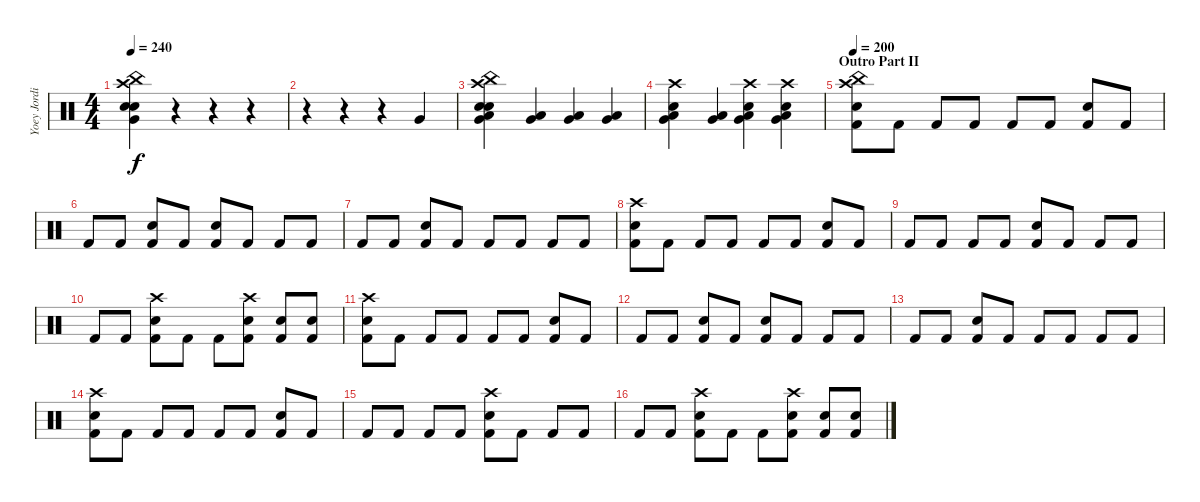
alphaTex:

\track ("Yoey Jordison" "Yoey Jordi") {instrument percussion}
\staff {score}
\articulation defaults
\ts (4 4)
\tempo 240
\clef neutral
\ks c
("China (hit)" "Crash high (hit)" "Electric Snare (hit)" "Snare (hit) 2" "Very Low Tom (hit)").4{dy f} r.4 r.4 r.4 |
r.4 r.4 r.4 "Very Low Tom (hit)".4 |
("Crash high (hit)" "China (hit)" "Electric Snare (hit)" "Very Low Tom (hit)" "Snare (hit) 2" "Low Floor Tom (hit)").4 ("Very Low Tom (hit)" "Low Floor Tom (hit)").4 ("Very Low Tom (hit)" "Low Floor Tom (hit)").4 ("Very Low Tom (hit)" "Low Floor Tom (hit)").4 |
("Crash high (hit)" "Electric Snare (hit)" "Very Low Tom (hit)" "Low Floor Tom (hit)").4 ("Very Low Tom (hit)" "Low Floor Tom (hit)").4 ("Crash high (hit)" "Electric Snare (hit)" "Very Low Tom (hit)" "Low Floor Tom (hit)").4 ("Crash high (hit)" "Electric Snare (hit)" "Very Low Tom (hit)" "Low Floor Tom (hit)").4 |
\section ("" "Outro Part II")
\tempo 200
("Crash high (hit)" "China (hit)" "Snare (hit) 2" "Kick (hit) 2").8 "Kick (hit) 2".8 "Kick (hit) 2".8 "Kick (hit) 2".8 "Kick (hit) 2".8 "Kick (hit) 2".8 ("Snare (hit) 2" "Kick (hit) 2").8 "Kick (hit) 2".8 |
"Kick (hit) 2".8 "Kick (hit) 2".8 ("Electric Snare (hit)" "Kick (hit) 2").8 "Kick (hit) 2".8 ("Snare (hit) 2" "Kick (hit) 2").8 "Kick (hit) 2".8 "Kick (hit) 2".8 "Kick (hit) 2".8 |
"Kick (hit) 2".8 "Kick (hit) 2".8 ("Snare (hit) 2" "Kick (hit) 2").8 "Kick (hit) 2".8 "Kick (hit) 2".8 "Kick (hit) 2".8 "Kick (hit) 2".8 "Kick (hit) 2".8 |
("Crash high (hit)" "Electric Snare (hit)" "Kick (hit) 2").8 "Kick (hit) 2".8 "Kick (hit) 2".8 "Kick (hit) 2".8 "Kick (hit) 2".8 "Kick (hit) 2".8 ("Electric Snare (hit)" "Kick (hit) 2").8 "Kick (hit) 2".8 |
"Kick (hit) 2".8 "Kick (hit) 2".8 "Kick (hit) 2".8 "Kick (hit) 2".8 ("Electric Snare (hit)" "Kick (hit) 2").8 "Kick (hit) 2".8 "Kick (hit) 2".8 "Kick (hit) 2".8 |
"Kick (hit) 2".8 "Kick (hit) 2".8 ("Crash high (hit)" "Electric Snare (hit)" "Kick (hit) 2").8 "Kick (hit) 2".8 "Kick (hit) 2".8 ("Crash high (hit)" "Electric Snare (hit)" "Kick (hit) 2").8 ("Electric Snare (hit)" "Kick (hit) 2").8 ("Electric Snare (hit)" "Kick (hit) 2").8 |
("Crash high (hit)" "Snare (hit) 2" "Kick (hit) 2").8 "Kick (hit) 2".8 "Kick (hit) 2".8 "Kick (hit) 2".8 "Kick (hit) 2".8 "Kick (hit) 2".8 ("Snare (hit) 2" "Kick (hit) 2").8 "Kick (hit) 2".8 |
"Kick (hit) 2".8 "Kick (hit) 2".8 ("Electric Snare (hit)" "Kick (hit) 2").8 "Kick (hit) 2".8 ("Snare (hit) 2" "Kick (hit) 2").8 "Kick (hit) 2".8 "Kick (hit) 2".8 "Kick (hit) 2".8 |
"Kick (hit) 2".8 "Kick (hit) 2".8 ("Snare (hit) 2" "Kick (hit) 2").8 "Kick (hit) 2".8 "Kick (hit) 2".8 "Kick (hit) 2".8 "Kick (hit) 2".8 "Kick (hit) 2".8 |
("Crash high (hit)" "Electric Snare (hit)" "Kick (hit) 2").8 "Kick (hit) 2".8 "Kick (hit) 2".8 "Kick (hit) 2".8 "Kick (hit) 2".8 "Kick (hit) 2".8 ("Electric Snare (hit)" "Kick (hit) 2").8 "Kick (hit) 2".8 |
"Kick (hit) 2".8 "Kick (hit) 2".8 "Kick (hit) 2".8 "Kick (hit) 2".8 ("Crash high (hit)" "Electric Snare (hit)" "Kick (hit) 2").8 "Kick (hit) 2".8 "Kick (hit) 2".8 "Kick (hit) 2".8 |
"Kick (hit) 2".8 "Kick (hit) 2".8 ("Crash high (hit)" "Electric Snare (hit)" "Kick (hit) 2").8 "Kick (hit) 2".8 "Kick (hit) 2".8 ("Crash high (hit)" "Electric Snare (hit)" "Kick (hit) 2").8 ("Electric Snare (hit)" "Kick (hit) 2").8 ("Electric Snare (hit)" "Kick (hit) 2").8
